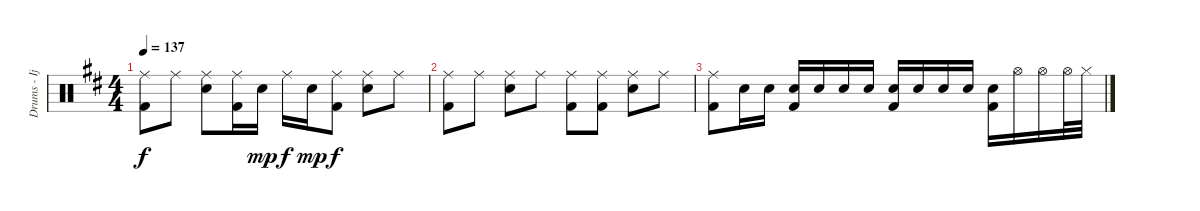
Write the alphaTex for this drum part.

\track ("Drums - Ijichi" "Drums - Ij") {instrument percussion}
\staff {score}
\articulation defaults
\ts (4 4)
\tempo 137
\clef neutral
\ks d
("Ride (middle)" "Kick (hit) 2").8{dy f} "Ride (middle)".8 ("Ride (middle)" "Electric Snare (hit)").8 ("Ride (middle)" "Kick (hit) 2").16 "Electric Snare (hit)".16{dy mp} "Ride (middle)".16{dy f} "Electric Snare (hit)".16{dy mp} ("Ride (middle)" "Kick (hit) 2").8{dy f} ("Ride (middle)" "Electric Snare (hit)").8 "Ride (middle)".8 |
("Ride (middle)" "Kick (hit) 2").8 "Ride (middle)".8 ("Ride (middle)" "Electric Snare (hit)").8 "Ride (middle)".8 ("Ride (middle)" "Kick (hit) 2").8 ("Ride (middle)" "Kick (hit) 2").8 ("Ride (middle)" "Electric Snare (hit)").8 "Ride (middle)".8 |
("Ride (middle)" "Kick (hit) 2").8 "Electric Snare (hit)".16 "Electric Snare (hit)".16 ("Electric Snare (hit)" "Kick (hit) 2").16 "Electric Snare (hit)".16 "Electric Snare (hit)".16 "Electric Snare (hit)".16 ("Electric Snare (hit)" "Kick (hit) 2").16 "Electric Snare (hit)".16 "Electric Snare (hit)".16 "Electric Snare (hit)".16 ("Electric Snare (hit)" "Kick (hit) 2").16 "Hi-Hat (open)".16 "Hi-Hat (open)".16 "Hi-Hat (open)".32 "Hi-Hat (closed)".32
